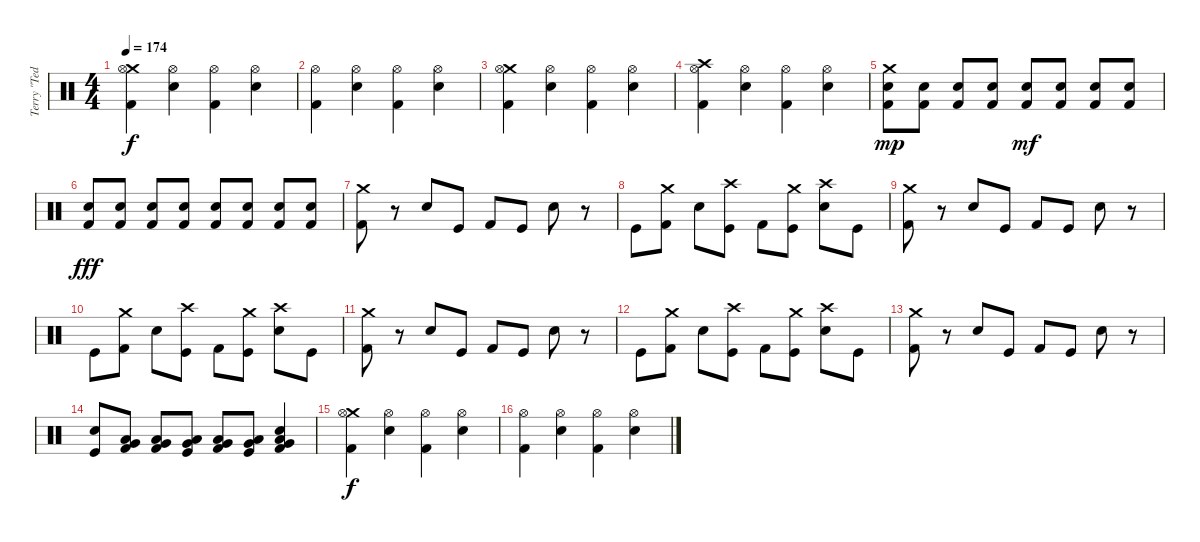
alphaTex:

\track ("Terry \"Ted\" Bozzio" "Terry \"Ted") {instrument percussion}
\staff {score}
\articulation defaults
\ts (4 4)
\tempo 174
\clef neutral
\ks c
("Crash medium (hit)" "Hi-Hat (open)" "Kick (hit) 2").4{dy f} ("Hi-Hat (open)" "Electric Snare (hit)").4 ("Hi-Hat (open)" "Kick (hit) 2").4 ("Hi-Hat (open)" "Electric Snare (hit)").4 |
("Hi-Hat (open)" "Kick (hit) 2").4 ("Hi-Hat (open)" "Electric Snare (hit)").4 ("Hi-Hat (open)" "Kick (hit) 2").4 ("Hi-Hat (open)" "Electric Snare (hit)").4 |
("Crash medium (hit)" "Hi-Hat (open)" "Kick (hit) 2").4 ("Hi-Hat (open)" "Electric Snare (hit)").4 ("Hi-Hat (open)" "Kick (hit) 2").4 ("Hi-Hat (open)" "Electric Snare (hit)").4 |
("Crash high (hit)" "Hi-Hat (open)" "Kick (hit) 2").4 ("Hi-Hat (open)" "Electric Snare (hit)").4 ("Hi-Hat (open)" "Kick (hit) 2").4 ("Hi-Hat (open)" "Electric Snare (hit)").4 |
("Crash medium (hit)" "Electric Snare (hit)" "Kick (hit) 2").8{dy mp} ("Electric Snare (hit)" "Kick (hit) 2").8 ("Electric Snare (hit)" "Kick (hit) 2").8 ("Electric Snare (hit)" "Kick (hit) 2").8 ("Electric Snare (hit)" "Kick (hit) 2").8{dy mf} ("Electric Snare (hit)" "Kick (hit) 2").8 ("Electric Snare (hit)" "Kick (hit) 2").8 ("Electric Snare (hit)" "Kick (hit) 2").8 |
("Electric Snare (hit)" "Kick (hit) 2").8{dy fff} ("Electric Snare (hit)" "Kick (hit) 2").8 ("Electric Snare (hit)" "Kick (hit) 2").8 ("Electric Snare (hit)" "Kick (hit) 2").8 ("Electric Snare (hit)" "Kick (hit) 2").8 ("Electric Snare (hit)" "Kick (hit) 2").8 ("Electric Snare (hit)" "Kick (hit) 2").8 ("Electric Snare (hit)" "Kick (hit) 2").8 |
("Crash medium (hit)" "Kick (hit) 2").8 r.8 "Electric Snare (hit)".8 "Kick (hit)".8 "Kick (hit) 2".8 "Kick (hit)".8 "Electric Snare (hit)".8 r.8 |
"Kick (hit)".8 ("Crash medium (hit)" "Kick (hit) 2").8 "Electric Snare (hit)".8 ("Crash high (hit)" "Kick (hit)").8 "Kick (hit) 2".8 ("Crash medium (hit)" "Kick (hit)").8 ("Crash high (hit)" "Electric Snare (hit)").8 "Kick (hit)".8 |
("Crash medium (hit)" "Kick (hit) 2").8 r.8 "Electric Snare (hit)".8 "Kick (hit)".8 "Kick (hit) 2".8 "Kick (hit)".8 "Electric Snare (hit)".8 r.8 |
"Kick (hit)".8 ("Crash medium (hit)" "Kick (hit) 2").8 "Electric Snare (hit)".8 ("Crash high (hit)" "Kick (hit)").8 "Kick (hit) 2".8 ("Crash medium (hit)" "Kick (hit)").8 ("Crash high (hit)" "Electric Snare (hit)").8 "Kick (hit)".8 |
("Crash medium (hit)" "Kick (hit) 2").8 r.8 "Electric Snare (hit)".8 "Kick (hit)".8 "Kick (hit) 2".8 "Kick (hit)".8 "Electric Snare (hit)".8 r.8 |
"Kick (hit)".8 ("Crash medium (hit)" "Kick (hit) 2").8 "Electric Snare (hit)".8 ("Crash high (hit)" "Kick (hit)").8 "Kick (hit) 2".8 ("Crash medium (hit)" "Kick (hit)").8 ("Crash high (hit)" "Electric Snare (hit)").8 "Kick (hit)".8 |
("Crash medium (hit)" "Kick (hit) 2").8 r.8 "Electric Snare (hit)".8 "Kick (hit)".8 "Kick (hit) 2".8 "Kick (hit)".8 "Electric Snare (hit)".8 r.8 |
("Electric Snare (hit)" "Kick (hit)").8 ("Very Low Tom (hit)" "Low Floor Tom (hit)" "Kick (hit) 2").8 ("Very Low Tom (hit)" "Low Floor Tom (hit)" "Kick (hit) 2").8 ("Very Low Tom (hit)" "Low Floor Tom (hit)" "Kick (hit)").8 ("Very Low Tom (hit)" "Low Floor Tom (hit)" "Kick (hit) 2").8 ("Very Low Tom (hit)" "Low Floor Tom (hit)" "Kick (hit)").8 ("Electric Snare (hit)" "Very Low Tom (hit)" "Low Floor Tom (hit)" "Kick (hit) 2").4 |
("Crash medium (hit)" "Hi-Hat (open)" "Kick (hit) 2").4{dy f} ("Hi-Hat (open)" "Electric Snare (hit)").4 ("Hi-Hat (open)" "Kick (hit) 2").4 ("Hi-Hat (open)" "Electric Snare (hit)").4 |
("Hi-Hat (open)" "Kick (hit) 2").4 ("Hi-Hat (open)" "Electric Snare (hit)").4 ("Hi-Hat (open)" "Kick (hit) 2").4 ("Hi-Hat (open)" "Electric Snare (hit)").4
